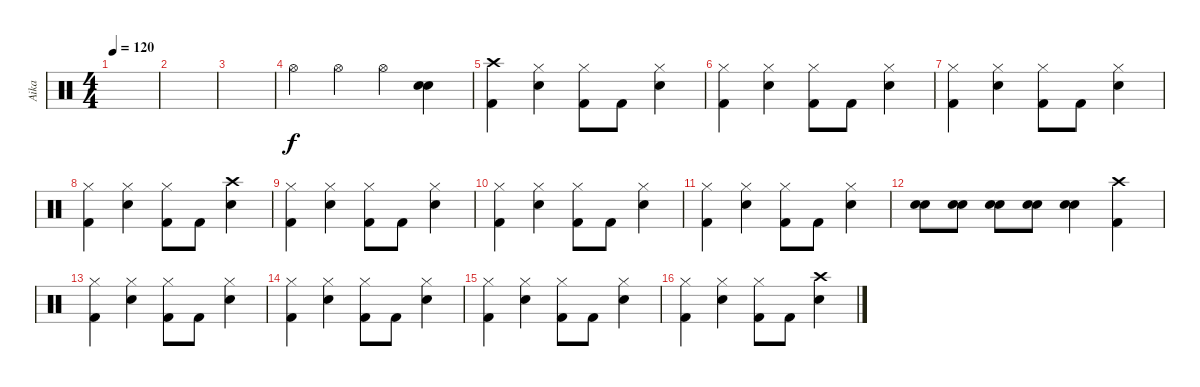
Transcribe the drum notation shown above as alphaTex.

\track ("Aika" "Aika") {instrument percussion}
\staff {score}
\articulation defaults
\ts (4 4)
\tempo 120
\clef neutral
\ks c
|
|
|
"Hi-Hat (open)".4 "Hi-Hat (open)".4 "Hi-Hat (open)".4 ("Snare (hit) 2" "Snare (hit) 2").4 |
("Crash high (hit)" "Kick (hit) 2").4 ("Hi-Hat (closed)" "Snare (hit) 2").4 ("Hi-Hat (closed)" "Kick (hit) 2").8 "Kick (hit) 2".8 ("Hi-Hat (closed)" "Snare (hit) 2").4 |
("Hi-Hat (closed)" "Kick (hit) 2").4 ("Hi-Hat (closed)" "Snare (hit) 2").4 ("Hi-Hat (closed)" "Kick (hit) 2").8 "Kick (hit) 2".8 ("Hi-Hat (closed)" "Snare (hit) 2").4 |
("Hi-Hat (closed)" "Kick (hit) 2").4 ("Hi-Hat (closed)" "Snare (hit) 2").4 ("Hi-Hat (closed)" "Kick (hit) 2").8 "Kick (hit) 2".8 ("Hi-Hat (closed)" "Snare (hit) 2").4 |
("Hi-Hat (closed)" "Kick (hit) 2").4 ("Hi-Hat (closed)" "Snare (hit) 2").4 ("Hi-Hat (closed)" "Kick (hit) 2").8 "Kick (hit) 2".8 ("Crash high (hit)" "Snare (hit) 2").4 |
("Hi-Hat (closed)" "Kick (hit) 2").4 ("Hi-Hat (closed)" "Snare (hit) 2").4 ("Hi-Hat (closed)" "Kick (hit) 2").8 "Kick (hit) 2".8 ("Hi-Hat (closed)" "Snare (hit) 2").4 |
("Hi-Hat (closed)" "Kick (hit) 2").4 ("Hi-Hat (closed)" "Snare (hit) 2").4 ("Hi-Hat (closed)" "Kick (hit) 2").8 "Kick (hit) 2".8 ("Hi-Hat (closed)" "Snare (hit) 2").4 |
("Hi-Hat (closed)" "Kick (hit) 2").4 ("Hi-Hat (closed)" "Snare (hit) 2").4 ("Hi-Hat (closed)" "Kick (hit) 2").8 "Kick (hit) 2".8 ("Hi-Hat (closed)" "Snare (hit) 2").4 |
("Snare (hit) 2" "Snare (hit) 2").8 ("Snare (hit) 2" "Snare (hit) 2").8 ("Snare (hit) 2" "Snare (hit) 2").8 ("Snare (hit) 2" "Snare (hit) 2").8 ("Snare (hit) 2" "Snare (hit) 2").4 ("Crash high (hit)" "Kick (hit) 2").4 |
("Hi-Hat (closed)" "Kick (hit) 2").4 ("Hi-Hat (closed)" "Snare (hit) 2").4 ("Hi-Hat (closed)" "Kick (hit) 2").8 "Kick (hit) 2".8 ("Hi-Hat (closed)" "Snare (hit) 2").4 |
("Hi-Hat (closed)" "Kick (hit) 2").4 ("Hi-Hat (closed)" "Snare (hit) 2").4 ("Hi-Hat (closed)" "Kick (hit) 2").8 "Kick (hit) 2".8 ("Hi-Hat (closed)" "Snare (hit) 2").4 |
("Hi-Hat (closed)" "Kick (hit) 2").4 ("Hi-Hat (closed)" "Snare (hit) 2").4 ("Hi-Hat (closed)" "Kick (hit) 2").8 "Kick (hit) 2".8 ("Hi-Hat (closed)" "Snare (hit) 2").4 |
("Hi-Hat (closed)" "Kick (hit) 2").4 ("Hi-Hat (closed)" "Snare (hit) 2").4 ("Hi-Hat (closed)" "Kick (hit) 2").8 "Kick (hit) 2".8 ("Crash high (hit)" "Snare (hit) 2").4
